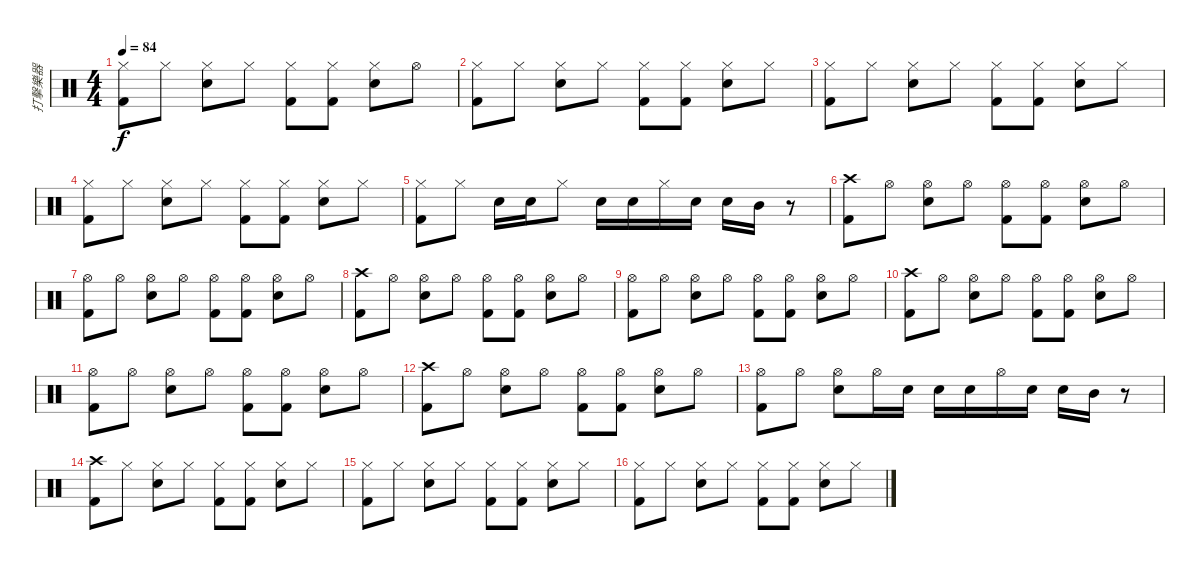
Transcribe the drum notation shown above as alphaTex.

\track ("打擊樂器" "打擊樂器") {instrument percussion}
\staff {score}
\articulation defaults
\ts (4 4)
\tempo 84
\clef neutral
\ks c
("Hi-Hat (closed)" "Kick (hit) 2").8{dy f} "Hi-Hat (closed)".8 ("Hi-Hat (closed)" "Snare (hit) 2").8 "Hi-Hat (closed)".8 ("Hi-Hat (closed)" "Kick (hit) 2").8 ("Hi-Hat (closed)" "Kick (hit) 2").8 ("Hi-Hat (closed)" "Snare (hit) 2").8 "Hi-Hat (open)".8 |
("Hi-Hat (closed)" "Kick (hit) 2").8 "Hi-Hat (closed)".8 ("Hi-Hat (closed)" "Snare (hit) 2").8 "Hi-Hat (closed)".8 ("Hi-Hat (closed)" "Kick (hit) 2").8 ("Hi-Hat (closed)" "Kick (hit) 2").8 ("Hi-Hat (closed)" "Snare (hit) 2").8 "Hi-Hat (closed)".8 |
("Hi-Hat (closed)" "Kick (hit) 2").8 "Hi-Hat (closed)".8 ("Hi-Hat (closed)" "Snare (hit) 2").8 "Hi-Hat (closed)".8 ("Hi-Hat (closed)" "Kick (hit) 2").8 ("Hi-Hat (closed)" "Kick (hit) 2").8 ("Hi-Hat (closed)" "Snare (hit) 2").8 "Hi-Hat (closed)".8 |
("Hi-Hat (closed)" "Kick (hit) 2").8 "Hi-Hat (closed)".8 ("Hi-Hat (closed)" "Snare (hit) 2").8 "Hi-Hat (closed)".8 ("Hi-Hat (closed)" "Kick (hit) 2").8 ("Hi-Hat (closed)" "Kick (hit) 2").8 ("Hi-Hat (closed)" "Snare (hit) 2").8 "Hi-Hat (closed)".8 |
("Hi-Hat (closed)" "Kick (hit) 2").8 "Hi-Hat (closed)".8 "Snare (hit) 2".16 "Snare (hit) 2".16 "Hi-Hat (closed)".8 "Snare (hit) 2".16 "Snare (hit) 2".16 "Hi-Hat (closed)".16 "Snare (hit) 2".16 "Snare (hit) 2".16 "Mid Tom (hit)".16 r.8 |
("Crash high (hit)" "Kick (hit) 2").8 "Hi-Hat (open)".8 ("Hi-Hat (open)" "Snare (hit) 2").8 "Hi-Hat (open)".8 ("Hi-Hat (open)" "Kick (hit) 2").8 ("Hi-Hat (open)" "Kick (hit) 2").8 ("Hi-Hat (open)" "Snare (hit) 2").8 "Hi-Hat (open)".8 |
("Hi-Hat (open)" "Kick (hit) 2").8 "Hi-Hat (open)".8 ("Hi-Hat (open)" "Snare (hit) 2").8 "Hi-Hat (open)".8 ("Hi-Hat (open)" "Kick (hit) 2").8 ("Hi-Hat (open)" "Kick (hit) 2").8 ("Hi-Hat (open)" "Snare (hit) 2").8 "Hi-Hat (open)".8 |
("Crash high (hit)" "Kick (hit) 2").8 "Hi-Hat (open)".8 ("Hi-Hat (open)" "Snare (hit) 2").8 "Hi-Hat (open)".8 ("Hi-Hat (open)" "Kick (hit) 2").8 ("Hi-Hat (open)" "Kick (hit) 2").8 ("Hi-Hat (open)" "Snare (hit) 2").8 "Hi-Hat (open)".8 |
("Hi-Hat (open)" "Kick (hit) 2").8 "Hi-Hat (open)".8 ("Hi-Hat (open)" "Snare (hit) 2").8 "Hi-Hat (open)".8 ("Hi-Hat (open)" "Kick (hit) 2").8 ("Hi-Hat (open)" "Kick (hit) 2").8 ("Hi-Hat (open)" "Snare (hit) 2").8 "Hi-Hat (open)".8 |
("Crash high (hit)" "Kick (hit) 2").8 "Hi-Hat (open)".8 ("Hi-Hat (open)" "Snare (hit) 2").8 "Hi-Hat (open)".8 ("Hi-Hat (open)" "Kick (hit) 2").8 ("Hi-Hat (open)" "Kick (hit) 2").8 ("Hi-Hat (open)" "Snare (hit) 2").8 "Hi-Hat (open)".8 |
("Hi-Hat (open)" "Kick (hit) 2").8 "Hi-Hat (open)".8 ("Hi-Hat (open)" "Snare (hit) 2").8 "Hi-Hat (open)".8 ("Hi-Hat (open)" "Kick (hit) 2").8 ("Hi-Hat (open)" "Kick (hit) 2").8 ("Hi-Hat (open)" "Snare (hit) 2").8 "Hi-Hat (open)".8 |
("Crash high (hit)" "Kick (hit) 2").8 "Hi-Hat (open)".8 ("Hi-Hat (open)" "Snare (hit) 2").8 "Hi-Hat (open)".8 ("Hi-Hat (open)" "Kick (hit) 2").8 ("Hi-Hat (open)" "Kick (hit) 2").8 ("Hi-Hat (open)" "Snare (hit) 2").8 "Hi-Hat (open)".8 |
("Hi-Hat (open)" "Kick (hit) 2").8 "Hi-Hat (open)".8 ("Hi-Hat (open)" "Snare (hit) 2").8 "Hi-Hat (open)".16 "Snare (hit) 2".16 "Snare (hit) 2".16 "Snare (hit) 2".16 "Hi-Hat (open)".16 "Snare (hit) 2".16 "Snare (hit) 2".16 "Mid Tom (hit)".16 r.8 |
("Crash high (hit)" "Kick (hit) 2").8 "Hi-Hat (closed)".8 ("Hi-Hat (closed)" "Snare (hit) 2").8 "Hi-Hat (closed)".8 ("Hi-Hat (closed)" "Kick (hit) 2").8 ("Hi-Hat (closed)" "Kick (hit) 2").8 ("Hi-Hat (closed)" "Snare (hit) 2").8 "Hi-Hat (closed)".8 |
("Hi-Hat (closed)" "Kick (hit) 2").8 "Hi-Hat (closed)".8 ("Hi-Hat (closed)" "Snare (hit) 2").8 "Hi-Hat (closed)".8 ("Hi-Hat (closed)" "Kick (hit) 2").8 ("Hi-Hat (closed)" "Kick (hit) 2").8 ("Hi-Hat (closed)" "Snare (hit) 2").8 "Hi-Hat (closed)".8 |
("Hi-Hat (closed)" "Kick (hit) 2").8 "Hi-Hat (closed)".8 ("Hi-Hat (closed)" "Snare (hit) 2").8 "Hi-Hat (closed)".8 ("Hi-Hat (closed)" "Kick (hit) 2").8 ("Hi-Hat (closed)" "Kick (hit) 2").8 ("Hi-Hat (closed)" "Snare (hit) 2").8 "Hi-Hat (closed)".8
